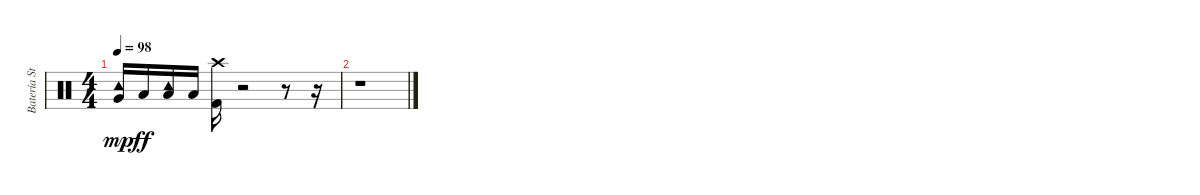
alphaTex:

\track ("Batería Standard" "Batería St") {instrument percussion}
\staff {score}
\articulation defaults
\ts (4 4)
\tempo 98
\clef neutral
\ks c
("Very Low Tom (hit)" "Tambourine (hit)").16{dy mp} "Low Floor Tom (hit)".16{dy ff} ("Tambourine (hit)" "Low Floor Tom (hit)").16 "Low Floor Tom (hit)".16 ("Crash high (hit)" "Kick (hit) 2").16 r.2 r.8 r.16 |
r.1
